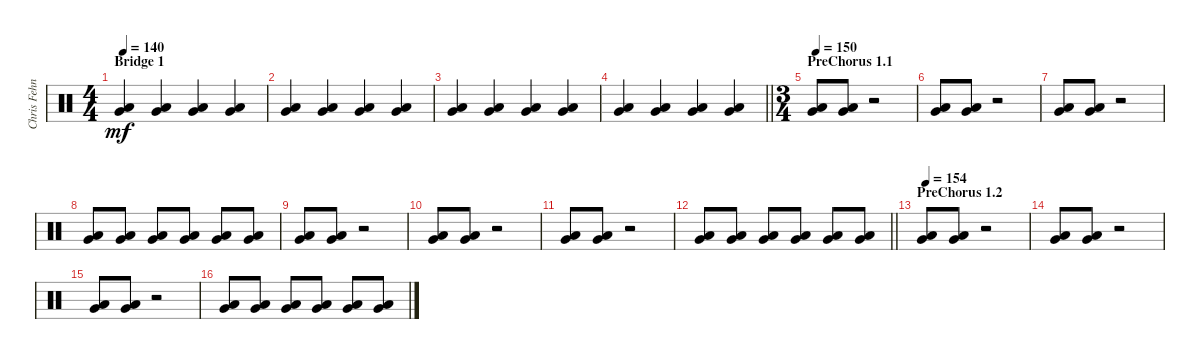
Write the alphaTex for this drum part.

\track ("Chris Fehn" "Chris Fehn") {instrument percussion}
\staff {score}
\articulation defaults
\ts (4 4)
\section ("" "Bridge 1")
\tempo 140
\clef neutral
\ks c
("Very Low Tom (hit)" "Low Floor Tom (hit)").4{dy mf} ("Very Low Tom (hit)" "Low Floor Tom (hit)").4 ("Very Low Tom (hit)" "Low Floor Tom (hit)").4 ("Very Low Tom (hit)" "Low Floor Tom (hit)").4 |
("Very Low Tom (hit)" "Low Floor Tom (hit)").4 ("Very Low Tom (hit)" "Low Floor Tom (hit)").4 ("Very Low Tom (hit)" "Low Floor Tom (hit)").4 ("Very Low Tom (hit)" "Low Floor Tom (hit)").4 |
("Very Low Tom (hit)" "Low Floor Tom (hit)").4 ("Very Low Tom (hit)" "Low Floor Tom (hit)").4 ("Very Low Tom (hit)" "Low Floor Tom (hit)").4 ("Very Low Tom (hit)" "Low Floor Tom (hit)").4 |
\barLineRight lightlight
("Very Low Tom (hit)" "Low Floor Tom (hit)").4 ("Very Low Tom (hit)" "Low Floor Tom (hit)").4 ("Very Low Tom (hit)" "Low Floor Tom (hit)").4 ("Very Low Tom (hit)" "Low Floor Tom (hit)").4 |
\ts (3 4)
\section ("" "PreChorus 1.1")
\tempo 150
("Very Low Tom (hit)" "Low Floor Tom (hit)").8 ("Very Low Tom (hit)" "Low Floor Tom (hit)").8 r.2 |
("Very Low Tom (hit)" "Low Floor Tom (hit)").8 ("Very Low Tom (hit)" "Low Floor Tom (hit)").8 r.2 |
("Very Low Tom (hit)" "Low Floor Tom (hit)").8 ("Very Low Tom (hit)" "Low Floor Tom (hit)").8 r.2 |
("Very Low Tom (hit)" "Low Floor Tom (hit)").8 ("Very Low Tom (hit)" "Low Floor Tom (hit)").8 ("Very Low Tom (hit)" "Low Floor Tom (hit)").8 ("Very Low Tom (hit)" "Low Floor Tom (hit)").8 ("Very Low Tom (hit)" "Low Floor Tom (hit)").8 ("Very Low Tom (hit)" "Low Floor Tom (hit)").8 |
("Very Low Tom (hit)" "Low Floor Tom (hit)").8 ("Very Low Tom (hit)" "Low Floor Tom (hit)").8 r.2 |
("Very Low Tom (hit)" "Low Floor Tom (hit)").8 ("Very Low Tom (hit)" "Low Floor Tom (hit)").8 r.2 |
("Very Low Tom (hit)" "Low Floor Tom (hit)").8 ("Very Low Tom (hit)" "Low Floor Tom (hit)").8 r.2 |
\barLineRight lightlight
("Very Low Tom (hit)" "Low Floor Tom (hit)").8 ("Very Low Tom (hit)" "Low Floor Tom (hit)").8 ("Very Low Tom (hit)" "Low Floor Tom (hit)").8 ("Very Low Tom (hit)" "Low Floor Tom (hit)").8 ("Very Low Tom (hit)" "Low Floor Tom (hit)").8 ("Very Low Tom (hit)" "Low Floor Tom (hit)").8 |
\section ("" "PreChorus 1.2")
\tempo 154
("Very Low Tom (hit)" "Low Floor Tom (hit)").8 ("Very Low Tom (hit)" "Low Floor Tom (hit)").8 r.2 |
("Very Low Tom (hit)" "Low Floor Tom (hit)").8 ("Very Low Tom (hit)" "Low Floor Tom (hit)").8 r.2 |
("Very Low Tom (hit)" "Low Floor Tom (hit)").8 ("Very Low Tom (hit)" "Low Floor Tom (hit)").8 r.2 |
("Very Low Tom (hit)" "Low Floor Tom (hit)").8 ("Very Low Tom (hit)" "Low Floor Tom (hit)").8 ("Very Low Tom (hit)" "Low Floor Tom (hit)").8 ("Very Low Tom (hit)" "Low Floor Tom (hit)").8 ("Very Low Tom (hit)" "Low Floor Tom (hit)").8 ("Very Low Tom (hit)" "Low Floor Tom (hit)").8
